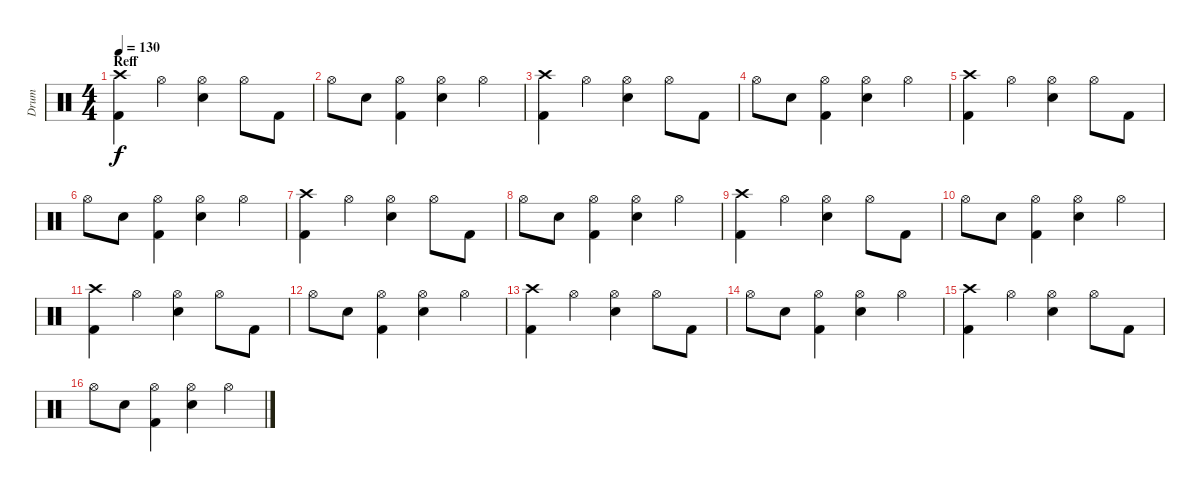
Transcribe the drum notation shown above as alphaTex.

\track ("Drum" "Drum") {instrument percussion}
\staff {score}
\articulation defaults
\ts (4 4)
\section ("" "Reff")
\tempo 130
\clef neutral
\ks c
("Crash high (hit)" "Kick (hit) 2").4{dy f} "Hi-Hat (open)".4 ("Snare (hit) 2" "Hi-Hat (open)").4 "Hi-Hat (open)".8 "Kick (hit) 2".8 |
"Hi-Hat (open)".8 "Snare (hit) 2".8 ("Kick (hit) 2" "Hi-Hat (open)").4 ("Snare (hit) 2" "Hi-Hat (open)").4 "Hi-Hat (open)".4 |
("Crash high (hit)" "Kick (hit) 2").4 "Hi-Hat (open)".4 ("Snare (hit) 2" "Hi-Hat (open)").4 "Hi-Hat (open)".8 "Kick (hit) 2".8 |
"Hi-Hat (open)".8 "Snare (hit) 2".8 ("Kick (hit) 2" "Hi-Hat (open)").4 ("Snare (hit) 2" "Hi-Hat (open)").4 "Hi-Hat (open)".4 |
("Crash high (hit)" "Kick (hit) 2").4 "Hi-Hat (open)".4 ("Snare (hit) 2" "Hi-Hat (open)").4 "Hi-Hat (open)".8 "Kick (hit) 2".8 |
"Hi-Hat (open)".8 "Snare (hit) 2".8 ("Kick (hit) 2" "Hi-Hat (open)").4 ("Snare (hit) 2" "Hi-Hat (open)").4 "Hi-Hat (open)".4 |
("Crash high (hit)" "Kick (hit) 2").4 "Hi-Hat (open)".4 ("Snare (hit) 2" "Hi-Hat (open)").4 "Hi-Hat (open)".8 "Kick (hit) 2".8 |
"Hi-Hat (open)".8 "Snare (hit) 2".8 ("Kick (hit) 2" "Hi-Hat (open)").4 ("Snare (hit) 2" "Hi-Hat (open)").4 "Hi-Hat (open)".4 |
("Crash high (hit)" "Kick (hit) 2").4 "Hi-Hat (open)".4 ("Snare (hit) 2" "Hi-Hat (open)").4 "Hi-Hat (open)".8 "Kick (hit) 2".8 |
"Hi-Hat (open)".8 "Snare (hit) 2".8 ("Kick (hit) 2" "Hi-Hat (open)").4 ("Snare (hit) 2" "Hi-Hat (open)").4 "Hi-Hat (open)".4 |
("Crash high (hit)" "Kick (hit) 2").4 "Hi-Hat (open)".4 ("Snare (hit) 2" "Hi-Hat (open)").4 "Hi-Hat (open)".8 "Kick (hit) 2".8 |
"Hi-Hat (open)".8 "Snare (hit) 2".8 ("Kick (hit) 2" "Hi-Hat (open)").4 ("Snare (hit) 2" "Hi-Hat (open)").4 "Hi-Hat (open)".4 |
("Crash high (hit)" "Kick (hit) 2").4 "Hi-Hat (open)".4 ("Snare (hit) 2" "Hi-Hat (open)").4 "Hi-Hat (open)".8 "Kick (hit) 2".8 |
"Hi-Hat (open)".8 "Snare (hit) 2".8 ("Kick (hit) 2" "Hi-Hat (open)").4 ("Snare (hit) 2" "Hi-Hat (open)").4 "Hi-Hat (open)".4 |
("Crash high (hit)" "Kick (hit) 2").4 "Hi-Hat (open)".4 ("Snare (hit) 2" "Hi-Hat (open)").4 "Hi-Hat (open)".8 "Kick (hit) 2".8 |
"Hi-Hat (open)".8 "Snare (hit) 2".8 ("Kick (hit) 2" "Hi-Hat (open)").4 ("Snare (hit) 2" "Hi-Hat (open)").4 "Hi-Hat (open)".4
